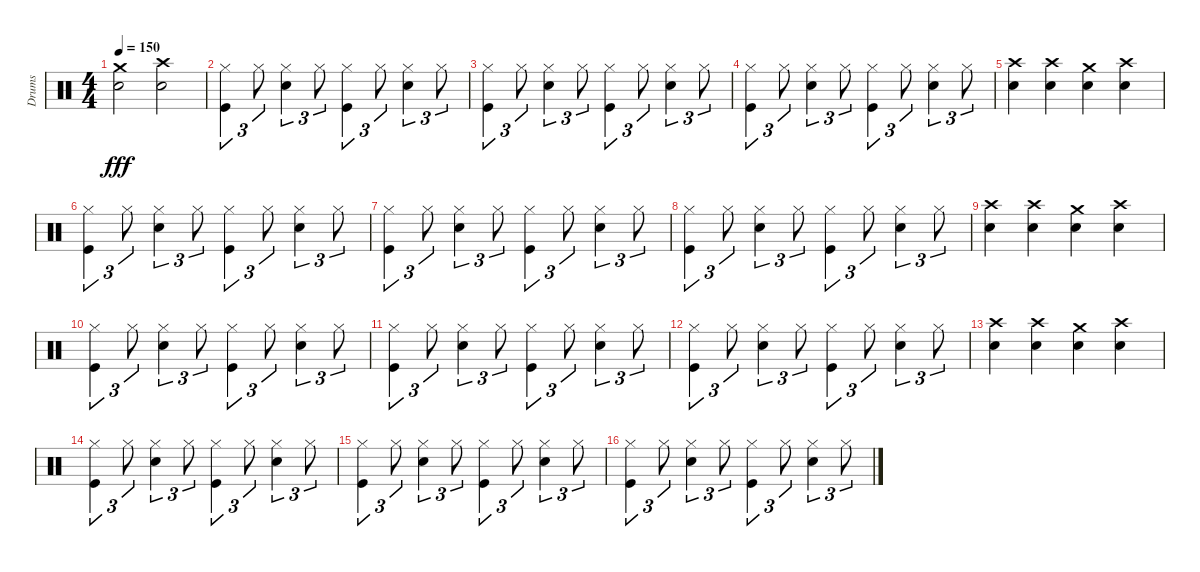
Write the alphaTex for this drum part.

\track ("Drums" "Drums") {instrument percussion}
\staff {score}
\articulation defaults
\ts (4 4)
\tempo 150
\clef neutral
\ks c
("Crash medium (hit)" "Snare (hit) 2").2{dy fff} ("Crash high (hit)" "Snare (hit) 2").2 |
("Hi-Hat (closed)" "Kick (hit)").4{tu (3 2)} "Hi-Hat (closed)".8{tu (3 2)} ("Hi-Hat (closed)" "Snare (hit) 2").4{tu (3 2)} "Hi-Hat (closed)".8{tu (3 2)} ("Hi-Hat (closed)" "Kick (hit)").4{tu (3 2)} "Hi-Hat (closed)".8{tu (3 2)} ("Hi-Hat (closed)" "Snare (hit) 2").4{tu (3 2)} "Hi-Hat (closed)".8{tu (3 2)} |
("Hi-Hat (closed)" "Kick (hit)").4{tu (3 2)} "Hi-Hat (closed)".8{tu (3 2)} ("Hi-Hat (closed)" "Snare (hit) 2").4{tu (3 2)} "Hi-Hat (closed)".8{tu (3 2)} ("Hi-Hat (closed)" "Kick (hit)").4{tu (3 2)} "Hi-Hat (closed)".8{tu (3 2)} ("Hi-Hat (closed)" "Snare (hit) 2").4{tu (3 2)} "Hi-Hat (closed)".8{tu (3 2)} |
("Hi-Hat (closed)" "Kick (hit)").4{tu (3 2)} "Hi-Hat (closed)".8{tu (3 2)} ("Hi-Hat (closed)" "Snare (hit) 2").4{tu (3 2)} "Hi-Hat (closed)".8{tu (3 2)} ("Hi-Hat (closed)" "Kick (hit)").4{tu (3 2)} "Hi-Hat (closed)".8{tu (3 2)} ("Hi-Hat (closed)" "Snare (hit) 2").4{tu (3 2)} "Hi-Hat (closed)".8{tu (3 2)} |
("Crash high (hit)" "Snare (hit) 2").4 ("Crash high (hit)" "Snare (hit) 2").4 ("Crash medium (hit)" "Snare (hit) 2").4 ("Crash high (hit)" "Snare (hit) 2").4 |
("Hi-Hat (closed)" "Kick (hit)").4{tu (3 2)} "Hi-Hat (closed)".8{tu (3 2)} ("Hi-Hat (closed)" "Snare (hit) 2").4{tu (3 2)} "Hi-Hat (closed)".8{tu (3 2)} ("Hi-Hat (closed)" "Kick (hit)").4{tu (3 2)} "Hi-Hat (closed)".8{tu (3 2)} ("Hi-Hat (closed)" "Snare (hit) 2").4{tu (3 2)} "Hi-Hat (closed)".8{tu (3 2)} |
("Hi-Hat (closed)" "Kick (hit)").4{tu (3 2)} "Hi-Hat (closed)".8{tu (3 2)} ("Hi-Hat (closed)" "Snare (hit) 2").4{tu (3 2)} "Hi-Hat (closed)".8{tu (3 2)} ("Hi-Hat (closed)" "Kick (hit)").4{tu (3 2)} "Hi-Hat (closed)".8{tu (3 2)} ("Hi-Hat (closed)" "Snare (hit) 2").4{tu (3 2)} "Hi-Hat (closed)".8{tu (3 2)} |
("Hi-Hat (closed)" "Kick (hit)").4{tu (3 2)} "Hi-Hat (closed)".8{tu (3 2)} ("Hi-Hat (closed)" "Snare (hit) 2").4{tu (3 2)} "Hi-Hat (closed)".8{tu (3 2)} ("Hi-Hat (closed)" "Kick (hit)").4{tu (3 2)} "Hi-Hat (closed)".8{tu (3 2)} ("Hi-Hat (closed)" "Snare (hit) 2").4{tu (3 2)} "Hi-Hat (closed)".8{tu (3 2)} |
("Crash high (hit)" "Snare (hit) 2").4 ("Crash high (hit)" "Snare (hit) 2").4 ("Crash medium (hit)" "Snare (hit) 2").4 ("Crash high (hit)" "Snare (hit) 2").4 |
("Hi-Hat (closed)" "Kick (hit)").4{tu (3 2)} "Hi-Hat (closed)".8{tu (3 2)} ("Hi-Hat (closed)" "Snare (hit) 2").4{tu (3 2)} "Hi-Hat (closed)".8{tu (3 2)} ("Hi-Hat (closed)" "Kick (hit)").4{tu (3 2)} "Hi-Hat (closed)".8{tu (3 2)} ("Hi-Hat (closed)" "Snare (hit) 2").4{tu (3 2)} "Hi-Hat (closed)".8{tu (3 2)} |
("Hi-Hat (closed)" "Kick (hit)").4{tu (3 2)} "Hi-Hat (closed)".8{tu (3 2)} ("Hi-Hat (closed)" "Snare (hit) 2").4{tu (3 2)} "Hi-Hat (closed)".8{tu (3 2)} ("Hi-Hat (closed)" "Kick (hit)").4{tu (3 2)} "Hi-Hat (closed)".8{tu (3 2)} ("Hi-Hat (closed)" "Snare (hit) 2").4{tu (3 2)} "Hi-Hat (closed)".8{tu (3 2)} |
("Hi-Hat (closed)" "Kick (hit)").4{tu (3 2)} "Hi-Hat (closed)".8{tu (3 2)} ("Hi-Hat (closed)" "Snare (hit) 2").4{tu (3 2)} "Hi-Hat (closed)".8{tu (3 2)} ("Hi-Hat (closed)" "Kick (hit)").4{tu (3 2)} "Hi-Hat (closed)".8{tu (3 2)} ("Hi-Hat (closed)" "Snare (hit) 2").4{tu (3 2)} "Hi-Hat (closed)".8{tu (3 2)} |
("Crash high (hit)" "Snare (hit) 2").4 ("Crash high (hit)" "Snare (hit) 2").4 ("Crash medium (hit)" "Snare (hit) 2").4 ("Crash high (hit)" "Snare (hit) 2").4 |
("Hi-Hat (closed)" "Kick (hit)").4{tu (3 2)} "Hi-Hat (closed)".8{tu (3 2)} ("Hi-Hat (closed)" "Snare (hit) 2").4{tu (3 2)} "Hi-Hat (closed)".8{tu (3 2)} ("Hi-Hat (closed)" "Kick (hit)").4{tu (3 2)} "Hi-Hat (closed)".8{tu (3 2)} ("Hi-Hat (closed)" "Snare (hit) 2").4{tu (3 2)} "Hi-Hat (closed)".8{tu (3 2)} |
("Hi-Hat (closed)" "Kick (hit)").4{tu (3 2)} "Hi-Hat (closed)".8{tu (3 2)} ("Hi-Hat (closed)" "Snare (hit) 2").4{tu (3 2)} "Hi-Hat (closed)".8{tu (3 2)} ("Hi-Hat (closed)" "Kick (hit)").4{tu (3 2)} "Hi-Hat (closed)".8{tu (3 2)} ("Hi-Hat (closed)" "Snare (hit) 2").4{tu (3 2)} "Hi-Hat (closed)".8{tu (3 2)} |
("Hi-Hat (closed)" "Kick (hit)").4{tu (3 2)} "Hi-Hat (closed)".8{tu (3 2)} ("Hi-Hat (closed)" "Snare (hit) 2").4{tu (3 2)} "Hi-Hat (closed)".8{tu (3 2)} ("Hi-Hat (closed)" "Kick (hit)").4{tu (3 2)} "Hi-Hat (closed)".8{tu (3 2)} ("Hi-Hat (closed)" "Snare (hit) 2").4{tu (3 2)} "Hi-Hat (closed)".8{tu (3 2)}
